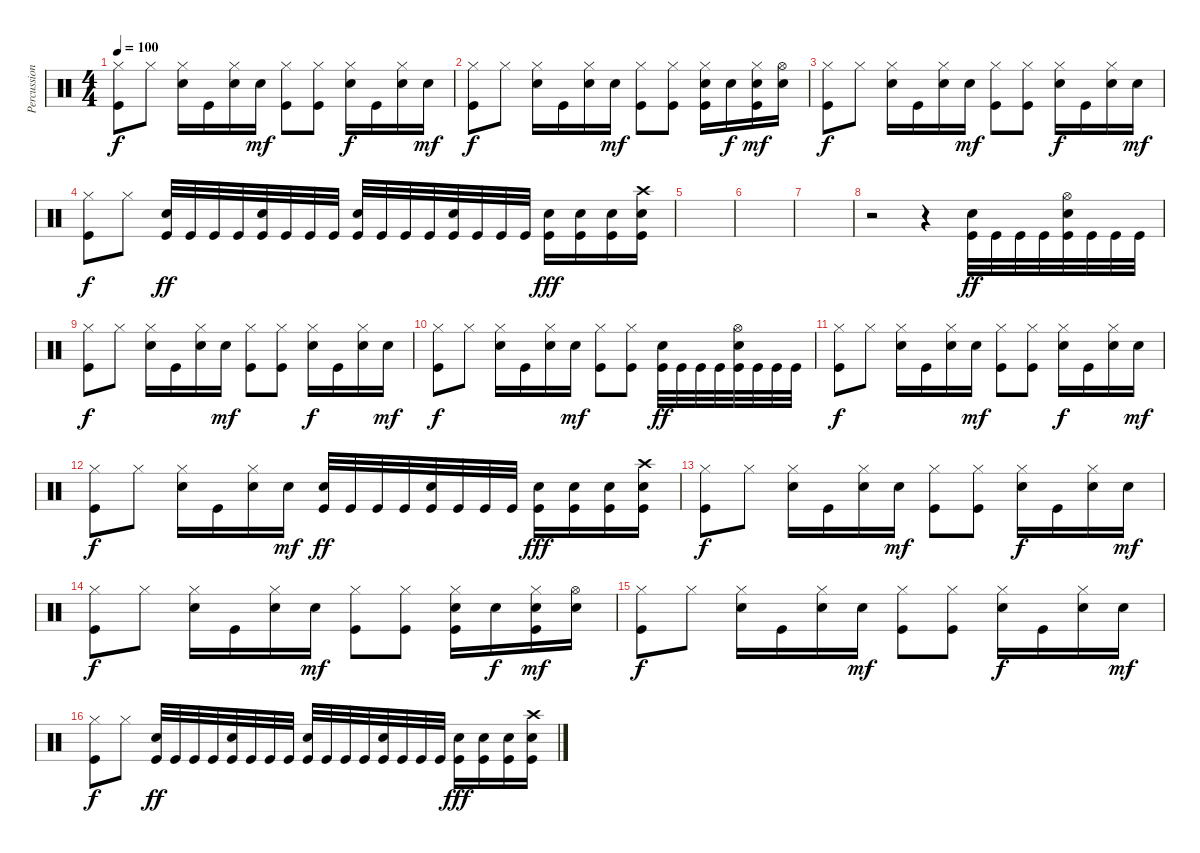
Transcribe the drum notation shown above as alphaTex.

\track ("Percussions" "Percussion") {instrument percussion}
\staff {score}
\articulation defaults
\ts (4 4)
\tempo 100
\clef neutral
\ks c
("Kick (hit)" "Hi-Hat (closed)").8{dy f} "Hi-Hat (closed)".8 ("Snare (hit) 2" "Hi-Hat (closed)").16 "Kick (hit)".16 ("Snare (hit) 2" "Hi-Hat (closed)").16 "Snare (hit) 2".16{dy mf} ("Kick (hit)" "Hi-Hat (closed)").8 ("Kick (hit)" "Hi-Hat (closed)").8 ("Snare (hit) 2" "Hi-Hat (closed)").16{dy f} "Kick (hit)".16 ("Snare (hit) 2" "Hi-Hat (closed)").16 "Snare (hit) 2".16{dy mf} |
("Kick (hit)" "Hi-Hat (closed)").8{dy f} "Hi-Hat (closed)".8 ("Snare (hit) 2" "Hi-Hat (closed)").16 "Kick (hit)".16 ("Snare (hit) 2" "Hi-Hat (closed)").16 "Snare (hit) 2".16{dy mf} ("Kick (hit)" "Hi-Hat (closed)").8 ("Kick (hit)" "Hi-Hat (closed)").8 ("Kick (hit)" "Snare (hit) 2" "Hi-Hat (closed)").16 "Snare (hit) 2".16{dy f} ("Kick (hit)" "Snare (hit) 2" "Hi-Hat (closed)").16{dy mf} ("Hi-Hat (open)" "Snare (hit) 2").16 |
("Kick (hit)" "Hi-Hat (closed)").8{dy f} "Hi-Hat (closed)".8 ("Snare (hit) 2" "Hi-Hat (closed)").16 "Kick (hit)".16 ("Snare (hit) 2" "Hi-Hat (closed)").16 "Snare (hit) 2".16{dy mf} ("Kick (hit)" "Hi-Hat (closed)").8 ("Kick (hit)" "Hi-Hat (closed)").8 ("Snare (hit) 2" "Hi-Hat (closed)").16{dy f} "Kick (hit)".16 ("Snare (hit) 2" "Hi-Hat (closed)").16 "Snare (hit) 2".16{dy mf} |
("Kick (hit)" "Hi-Hat (closed)").8{dy f} "Hi-Hat (closed)".8 ("Snare (hit) 2" "Kick (hit)").32{dy ff} "Kick (hit)".32 "Kick (hit)".32 "Kick (hit)".32 ("Snare (hit) 2" "Kick (hit)").32 "Kick (hit)".32 "Kick (hit)".32 "Kick (hit)".32 ("Snare (hit) 2" "Kick (hit)").32 "Kick (hit)".32 "Kick (hit)".32 "Kick (hit)".32 ("Snare (hit) 2" "Kick (hit)").32 "Kick (hit)".32 "Kick (hit)".32 "Kick (hit)".32 ("Snare (hit) 2" "Kick (hit)").16{dy fff} ("Snare (hit) 2" "Kick (hit)").16 ("Snare (hit) 2" "Kick (hit)").16 ("Crash high (hit)" "Snare (hit) 2" "Kick (hit)").16 |
|
|
|
r.2 r.4 ("Snare (hit) 2" "Kick (hit)").32{dy ff} "Kick (hit)".32 "Kick (hit)".32 "Kick (hit)".32 ("Hi-Hat (open)" "Snare (hit) 2" "Kick (hit)").32 "Kick (hit)".32 "Kick (hit)".32 "Kick (hit)".32 |
("Kick (hit)" "Hi-Hat (closed)").8{dy f} "Hi-Hat (closed)".8 ("Snare (hit) 2" "Hi-Hat (closed)").16 "Kick (hit)".16 ("Snare (hit) 2" "Hi-Hat (closed)").16 "Snare (hit) 2".16{dy mf} ("Kick (hit)" "Hi-Hat (closed)").8 ("Kick (hit)" "Hi-Hat (closed)").8 ("Snare (hit) 2" "Hi-Hat (closed)").16{dy f} "Kick (hit)".16 ("Snare (hit) 2" "Hi-Hat (closed)").16 "Snare (hit) 2".16{dy mf} |
("Kick (hit)" "Hi-Hat (closed)").8{dy f} "Hi-Hat (closed)".8 ("Snare (hit) 2" "Hi-Hat (closed)").16 "Kick (hit)".16 ("Snare (hit) 2" "Hi-Hat (closed)").16 "Snare (hit) 2".16{dy mf} ("Kick (hit)" "Hi-Hat (closed)").8 ("Kick (hit)" "Hi-Hat (closed)").8 ("Snare (hit) 2" "Kick (hit)").32{dy ff} "Kick (hit)".32 "Kick (hit)".32 "Kick (hit)".32 ("Hi-Hat (open)" "Snare (hit) 2" "Kick (hit)").32 "Kick (hit)".32 "Kick (hit)".32 "Kick (hit)".32 |
("Kick (hit)" "Hi-Hat (closed)").8{dy f} "Hi-Hat (closed)".8 ("Snare (hit) 2" "Hi-Hat (closed)").16 "Kick (hit)".16 ("Snare (hit) 2" "Hi-Hat (closed)").16 "Snare (hit) 2".16{dy mf} ("Kick (hit)" "Hi-Hat (closed)").8 ("Kick (hit)" "Hi-Hat (closed)").8 ("Snare (hit) 2" "Hi-Hat (closed)").16{dy f} "Kick (hit)".16 ("Snare (hit) 2" "Hi-Hat (closed)").16 "Snare (hit) 2".16{dy mf} |
("Kick (hit)" "Hi-Hat (closed)").8{dy f} "Hi-Hat (closed)".8 ("Snare (hit) 2" "Hi-Hat (closed)").16 "Kick (hit)".16 ("Snare (hit) 2" "Hi-Hat (closed)").16 "Snare (hit) 2".16{dy mf} ("Snare (hit) 2" "Kick (hit)").32{dy ff} "Kick (hit)".32 "Kick (hit)".32 "Kick (hit)".32 ("Snare (hit) 2" "Kick (hit)").32 "Kick (hit)".32 "Kick (hit)".32 "Kick (hit)".32 ("Snare (hit) 2" "Kick (hit)").16{dy fff} ("Snare (hit) 2" "Kick (hit)").16 ("Snare (hit) 2" "Kick (hit)").16 ("Crash high (hit)" "Snare (hit) 2" "Kick (hit)").16 |
("Kick (hit)" "Hi-Hat (closed)").8{dy f} "Hi-Hat (closed)".8 ("Snare (hit) 2" "Hi-Hat (closed)").16 "Kick (hit)".16 ("Snare (hit) 2" "Hi-Hat (closed)").16 "Snare (hit) 2".16{dy mf} ("Kick (hit)" "Hi-Hat (closed)").8 ("Kick (hit)" "Hi-Hat (closed)").8 ("Snare (hit) 2" "Hi-Hat (closed)").16{dy f} "Kick (hit)".16 ("Snare (hit) 2" "Hi-Hat (closed)").16 "Snare (hit) 2".16{dy mf} |
("Kick (hit)" "Hi-Hat (closed)").8{dy f} "Hi-Hat (closed)".8 ("Snare (hit) 2" "Hi-Hat (closed)").16 "Kick (hit)".16 ("Snare (hit) 2" "Hi-Hat (closed)").16 "Snare (hit) 2".16{dy mf} ("Kick (hit)" "Hi-Hat (closed)").8 ("Kick (hit)" "Hi-Hat (closed)").8 ("Kick (hit)" "Snare (hit) 2" "Hi-Hat (closed)").16 "Snare (hit) 2".16{dy f} ("Kick (hit)" "Snare (hit) 2" "Hi-Hat (closed)").16{dy mf} ("Hi-Hat (open)" "Snare (hit) 2").16 |
("Kick (hit)" "Hi-Hat (closed)").8{dy f} "Hi-Hat (closed)".8 ("Snare (hit) 2" "Hi-Hat (closed)").16 "Kick (hit)".16 ("Snare (hit) 2" "Hi-Hat (closed)").16 "Snare (hit) 2".16{dy mf} ("Kick (hit)" "Hi-Hat (closed)").8 ("Kick (hit)" "Hi-Hat (closed)").8 ("Snare (hit) 2" "Hi-Hat (closed)").16{dy f} "Kick (hit)".16 ("Snare (hit) 2" "Hi-Hat (closed)").16 "Snare (hit) 2".16{dy mf} |
("Kick (hit)" "Hi-Hat (closed)").8{dy f} "Hi-Hat (closed)".8 ("Snare (hit) 2" "Kick (hit)").32{dy ff} "Kick (hit)".32 "Kick (hit)".32 "Kick (hit)".32 ("Snare (hit) 2" "Kick (hit)").32 "Kick (hit)".32 "Kick (hit)".32 "Kick (hit)".32 ("Snare (hit) 2" "Kick (hit)").32 "Kick (hit)".32 "Kick (hit)".32 "Kick (hit)".32 ("Snare (hit) 2" "Kick (hit)").32 "Kick (hit)".32 "Kick (hit)".32 "Kick (hit)".32 ("Snare (hit) 2" "Kick (hit)").16{dy fff} ("Snare (hit) 2" "Kick (hit)").16 ("Snare (hit) 2" "Kick (hit)").16 ("Crash high (hit)" "Snare (hit) 2" "Kick (hit)").16
